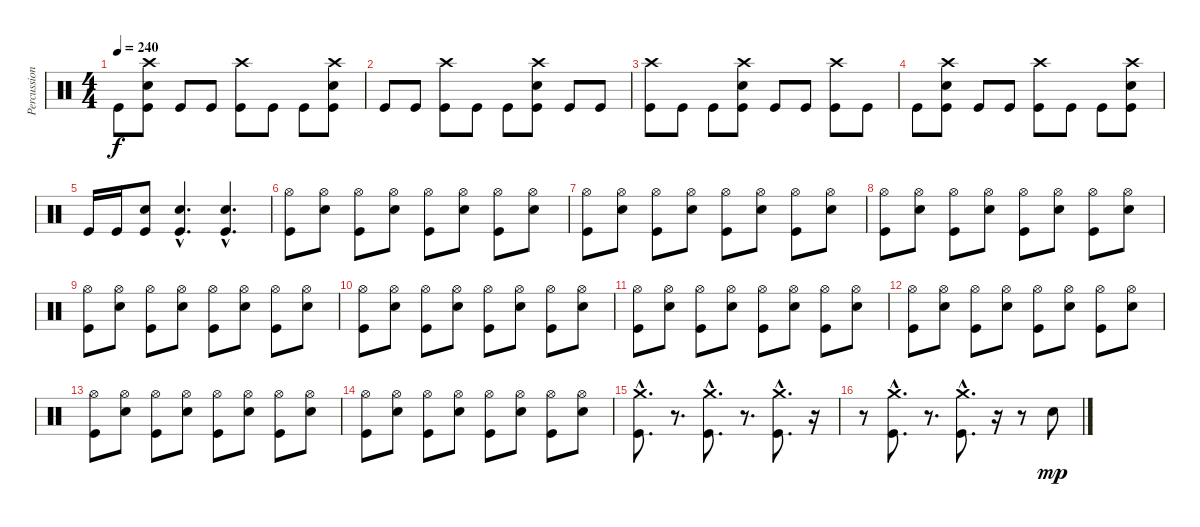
\track ("Percussion" "Percussion") {instrument percussion}
\staff {score}
\articulation defaults
\ts (4 4)
\tempo 240
\clef neutral
\ks c "Kick (hit)".8{dy f}
("Electric Snare (hit)" "Crash high (hit)" "Kick (hit)").8 "Kick (hit)".8 "Kick (hit)".8 ("Crash high (hit)" "Kick (hit)").8 "Kick (hit)".8 "Kick (hit)".8 ("Electric Snare (hit)" "Crash high (hit)" "Kick (hit)").8 |
"Kick (hit)".8 "Kick (hit)".8 ("Crash high (hit)" "Kick (hit)").8 "Kick (hit)".8 "Kick (hit)".8 ("Electric Snare (hit)" "Crash high (hit)" "Kick (hit)").8 "Kick (hit)".8 "Kick (hit)".8 |
("Crash high (hit)" "Kick (hit)").8 "Kick (hit)".8 "Kick (hit)".8 ("Electric Snare (hit)" "Crash high (hit)" "Kick (hit)").8 "Kick (hit)".8 "Kick (hit)".8 ("Crash high (hit)" "Kick (hit)").8 "Kick (hit)".8 |
"Kick (hit)".8 ("Electric Snare (hit)" "Crash high (hit)" "Kick (hit)").8 "Kick (hit)".8 "Kick (hit)".8 ("Crash high (hit)" "Kick (hit)").8 "Kick (hit)".8 "Kick (hit)".8 ("Electric Snare (hit)" "Crash high (hit)" "Kick (hit)").8 |
"Kick (hit)".16 "Kick (hit)".16 ("Electric Snare (hit)" "Kick (hit)").8 ("Electric Snare (hit)"{hac} "Kick (hit)"{hac}).4{d} ("Electric Snare (hit)"{hac} "Kick (hit)"{hac}).4{d} |
("Hi-Hat (open)" "Kick (hit)").8 ("Electric Snare (hit)" "Hi-Hat (open)").8 ("Hi-Hat (open)" "Kick (hit)").8 ("Electric Snare (hit)" "Hi-Hat (open)").8 ("Hi-Hat (open)" "Kick (hit)").8 ("Electric Snare (hit)" "Hi-Hat (open)").8 ("Hi-Hat (open)" "Kick (hit)").8 ("Electric Snare (hit)" "Hi-Hat (open)").8 |
("Hi-Hat (open)" "Kick (hit)").8 ("Electric Snare (hit)" "Hi-Hat (open)").8 ("Hi-Hat (open)" "Kick (hit)").8 ("Electric Snare (hit)" "Hi-Hat (open)").8 ("Hi-Hat (open)" "Kick (hit)").8 ("Electric Snare (hit)" "Hi-Hat (open)").8 ("Hi-Hat (open)" "Kick (hit)").8 ("Electric Snare (hit)" "Hi-Hat (open)").8 |
("Hi-Hat (open)" "Kick (hit)").8 ("Electric Snare (hit)" "Hi-Hat (open)").8 ("Hi-Hat (open)" "Kick (hit)").8 ("Electric Snare (hit)" "Hi-Hat (open)").8 ("Hi-Hat (open)" "Kick (hit)").8 ("Electric Snare (hit)" "Hi-Hat (open)").8 ("Hi-Hat (open)" "Kick (hit)").8 ("Electric Snare (hit)" "Hi-Hat (open)").8 |
("Hi-Hat (open)" "Kick (hit)").8 ("Electric Snare (hit)" "Hi-Hat (open)").8 ("Hi-Hat (open)" "Kick (hit)").8 ("Electric Snare (hit)" "Hi-Hat (open)").8 ("Hi-Hat (open)" "Kick (hit)").8 ("Electric Snare (hit)" "Hi-Hat (open)").8 ("Hi-Hat (open)" "Kick (hit)").8 ("Electric Snare (hit)" "Hi-Hat (open)").8 |
("Hi-Hat (open)" "Kick (hit)").8 ("Electric Snare (hit)" "Hi-Hat (open)").8 ("Hi-Hat (open)" "Kick (hit)").8 ("Electric Snare (hit)" "Hi-Hat (open)").8 ("Hi-Hat (open)" "Kick (hit)").8 ("Electric Snare (hit)" "Hi-Hat (open)").8 ("Hi-Hat (open)" "Kick (hit)").8 ("Electric Snare (hit)" "Hi-Hat (open)").8 |
("Hi-Hat (open)" "Kick (hit)").8 ("Electric Snare (hit)" "Hi-Hat (open)").8 ("Hi-Hat (open)" "Kick (hit)").8 ("Electric Snare (hit)" "Hi-Hat (open)").8 ("Hi-Hat (open)" "Kick (hit)").8 ("Electric Snare (hit)" "Hi-Hat (open)").8 ("Hi-Hat (open)" "Kick (hit)").8 ("Electric Snare (hit)" "Hi-Hat (open)").8 |
("Hi-Hat (open)" "Kick (hit)").8 ("Electric Snare (hit)" "Hi-Hat (open)").8 ("Hi-Hat (open)" "Kick (hit)").8 ("Electric Snare (hit)" "Hi-Hat (open)").8 ("Hi-Hat (open)" "Kick (hit)").8 ("Electric Snare (hit)" "Hi-Hat (open)").8 ("Hi-Hat (open)" "Kick (hit)").8 ("Electric Snare (hit)" "Hi-Hat (open)").8 |
("Hi-Hat (open)" "Kick (hit)").8 ("Electric Snare (hit)" "Hi-Hat (open)").8 ("Hi-Hat (open)" "Kick (hit)").8 ("Electric Snare (hit)" "Hi-Hat (open)").8 ("Hi-Hat (open)" "Kick (hit)").8 ("Electric Snare (hit)" "Hi-Hat (open)").8 ("Hi-Hat (open)" "Kick (hit)").8 ("Electric Snare (hit)" "Hi-Hat (open)").8 |
("Hi-Hat (open)" "Kick (hit)").8 ("Electric Snare (hit)" "Hi-Hat (open)").8 ("Hi-Hat (open)" "Kick (hit)").8 ("Electric Snare (hit)" "Hi-Hat (open)").8 ("Hi-Hat (open)" "Kick (hit)").8 ("Electric Snare (hit)" "Hi-Hat (open)").8 ("Hi-Hat (open)" "Kick (hit)").8 ("Electric Snare (hit)" "Hi-Hat (open)").8 |
("Crash medium (hit)"{hac} "Kick (hit)"{hac}).8{d} r.8{d} ("Crash medium (hit)"{hac} "Kick (hit)"{hac}).8{d} r.8{d} ("Crash medium (hit)"{hac} "Kick (hit)"{hac}).8{d} r.16 |
r.8 ("Crash medium (hit)"{hac} "Kick (hit)"{hac}).8{d} r.8{d} ("Crash medium (hit)"{hac} "Kick (hit)"{hac}).8{d} r.16 r.8 "Electric Snare (hit)".8{dy mp}
